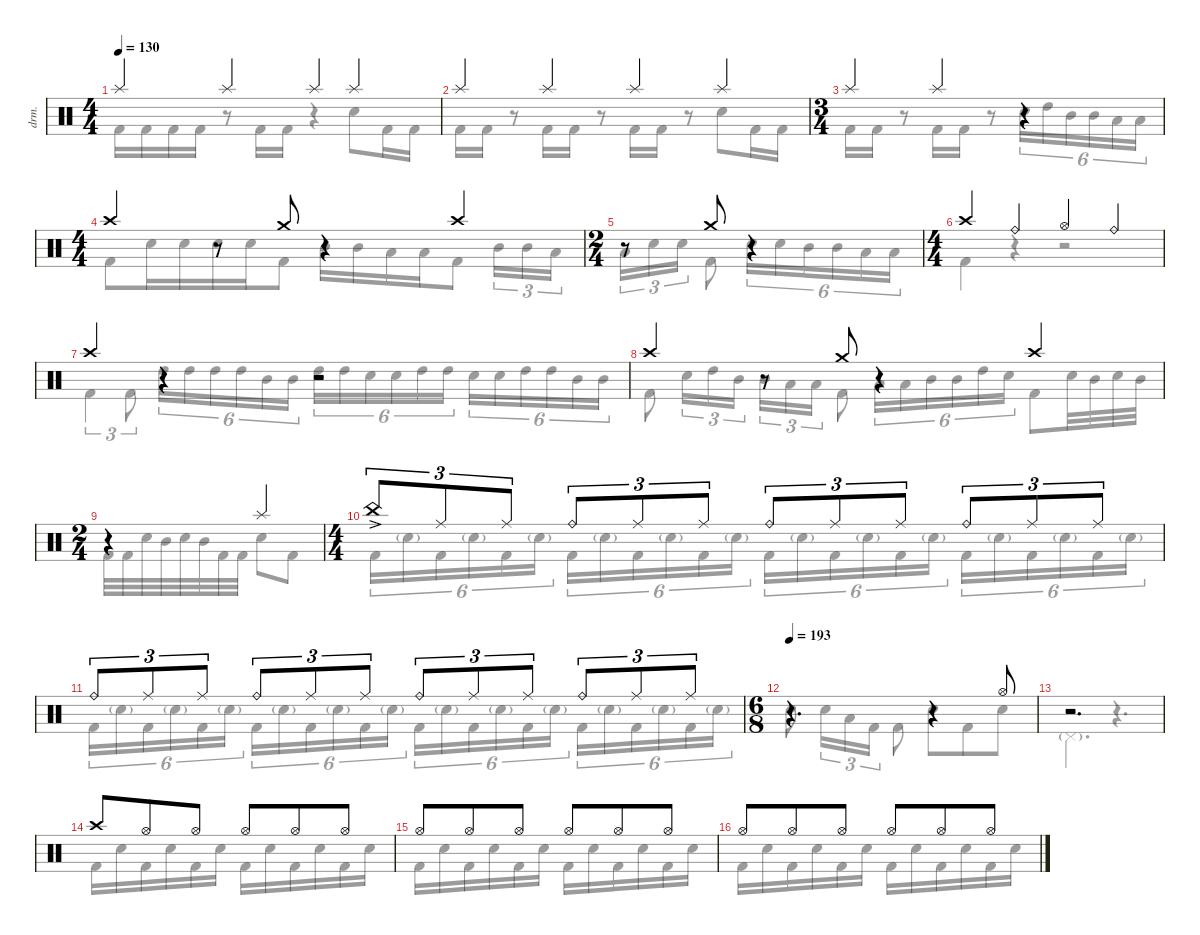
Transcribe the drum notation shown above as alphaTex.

\defaultSystemsLayout 4
\hideDynamics
\bracketExtendMode nobrackets
\otherSystemsTrackNameOrientation horizontal
\track ("B. Richardson Drums" "drm.") {instrument percussion}
\staff {score}
\articulation defaults
\voice
\ts (4 4)
\tempo 130
\clef neutral
\ks c "Splash (hit)".4{dy f beam Up} "Splash (hit)".4{beam Up} "Splash (hit)".4{beam Up} "Splash (hit)".4{beam Up}
|
"Splash (hit)".4{beam Up} "Splash (hit)".4{beam Up} "Splash (hit)".4{beam Up} "Splash (hit)".4{beam Up} |
\ts (3 4)
\beaming (8 2 2 2)
"Splash (hit)".4{beam Up} "Splash (hit)".4{beam Up} r.4{beam Up} |
\ts (4 4)
\beaming (8 4 4)
"Crash high (hit)".4{dy mf beam Up} r.8{beam Up} "Crash medium (hit)".8{beam Up} r.4{beam Up} "Crash high (hit)".4{beam Up} |
\ts (2 4)
\beaming (8 2 2)
r.8{beam Up} "Crash medium (hit)".8{beam Up} r.4{beam Up} |
\ts (4 4)
\beaming (8 4 4)
"Crash high (hit)".4{beam Up} "Ride (bell)".4{dy f beam Up} "Hi-Hat (open)".4{dy mf beam Up} "Ride (bell)".4{dy f beam Up} |
"Crash high (hit)".4{dy mf beam Up} r.4{beam Up} r.2{beam Up} |
"Crash high (hit)".4{beam Up} r.8{beam Up} "Crash medium (hit)".8{beam Up} r.4{beam Up} "Crash high (hit)".4{beam Up} |
\ts (2 4)
\beaming (8 2 2)
r.4{beam Up} "Splash (hit)".4{dy f beam Up} |
\ts (4 4)
\beaming (8 4 4)
"China (hit)"{ac}.8{tu (3 2) beam Up} "Ride (middle)".8{tu (3 2) dy mf beam Up} "Ride (middle)".8{tu (3 2) beam Up} "Ride (bell)".8{tu (3 2) dy f beam Up} "Ride (middle)".8{tu (3 2) dy mf beam Up} "Ride (middle)".8{tu (3 2) beam Up} "Ride (bell)".8{tu (3 2) dy f beam Up} "Ride (middle)".8{tu (3 2) dy mf beam Up} "Ride (middle)".8{tu (3 2) beam Up} "Ride (bell)".8{tu (3 2) dy f beam Up} "Ride (middle)".8{tu (3 2) dy mf beam Up} "Ride (middle)".8{tu (3 2) beam Up} |
"Ride (bell)".8{tu (3 2) dy f beam Up} "Ride (middle)".8{tu (3 2) dy mf beam Up} "Ride (middle)".8{tu (3 2) beam Up} "Ride (bell)".8{tu (3 2) dy f beam Up} "Ride (middle)".8{tu (3 2) dy mf beam Up} "Ride (middle)".8{tu (3 2) beam Up} "Ride (bell)".8{tu (3 2) dy f beam Up} "Ride (middle)".8{tu (3 2) dy mf beam Up} "Ride (middle)".8{tu (3 2) beam Up} "Ride (bell)".8{tu (3 2) dy f beam Up} "Ride (middle)".8{tu (3 2) dy mf beam Up} "Ride (middle)".8{tu (3 2) beam Up} |
\ts (6 8)
\beaming (8 3 3)
\tempo 193
r.4{d beam Up} r.4{beam Up} "Hi-Hat (open)".8{beam Up} |
r.2{d beam Up} |
"Crash high (hit)".8{dy f beam Up} "Hi-Hat (open)".8{dy mf beam Up} "Hi-Hat (open)".8{beam Up} "Hi-Hat (open)".8{beam Up} "Hi-Hat (open)".8{beam Up} "Hi-Hat (open)".8{beam Up} |
"Hi-Hat (open)".8{beam Up} "Hi-Hat (open)".8{beam Up} "Hi-Hat (open)".8{beam Up} "Hi-Hat (open)".8{beam Up} "Hi-Hat (open)".8{beam Up} "Hi-Hat (open)".8{beam Up} |
"Hi-Hat (open)".8{beam Up} "Hi-Hat (open)".8{beam Up} "Hi-Hat (open)".8{beam Up} "Hi-Hat (open)".8{beam Up} "Hi-Hat (open)".8{beam Up} "Hi-Hat (open)".8{beam Up}
\voice
\clef neutral
\ottava regular
\simile none
\ks c "Kick (hit) 2".16{dy fff beam Down} "Kick (hit) 2".16{beam Down} "Kick (hit) 2".16{beam Down} "Kick (hit) 2".16{beam Down}
r.8{beam Down} "Kick (hit) 2".16{beam Down} "Kick (hit) 2".16{beam Down} r.4{beam Down} "Snare (hit) 2".8{beam Down} "Kick (hit) 2".16{beam Down} "Kick (hit) 2".16{beam Down} |
"Kick (hit) 2".16{beam Down} "Kick (hit) 2".16{beam Down} r.8{beam Down} "Kick (hit) 2".16{beam Down} "Kick (hit) 2".16{beam Down} r.8{beam Down} "Kick (hit) 2".16{beam Down} "Kick (hit) 2".16{beam Down} r.8{beam Down} "Snare (hit) 2".8{beam Down} "Kick (hit) 2".16{beam Down} "Kick (hit) 2".16{beam Down} |
"Kick (hit) 2".16{beam Down} "Kick (hit) 2".16{beam Down} r.8{beam Down} "Kick (hit) 2".16{beam Down} "Kick (hit) 2".16{beam Down} r.8{beam Down} "Snare (hit) 2".16{tu (6 4) beam Down} "High Tom (hit)".16{tu (6 4) beam Down} "Mid Tom (hit)".16{tu (6 4) beam Down} "Mid Tom (hit)".16{tu (6 4) beam Down} "Low Tom (hit)".16{tu (6 4) beam Down} "Low Tom (hit)".16{tu (6 4) beam Down} |
"Kick (hit) 2".8{beam Down} "Snare (hit) 2".16{beam Down} "Snare (hit) 2".16{beam Down} "Snare (hit) 2".16{beam Down} "Snare (hit) 2".16{beam Down} "Kick (hit) 2".8{beam Down} "Mid Tom (hit)".16{beam Down} "Mid Tom (hit)".16{beam Down} "Low Tom (hit)".16{beam Down} "Low Tom (hit)".16{beam Down} "Kick (hit) 2".8{beam Down} "Mid Tom (hit)".16{tu (3 2) beam Down} "Mid Tom (hit)".16{tu (3 2) beam Down} "Low Tom (hit)".16{tu (3 2) beam Down} |
"Low Tom (hit)".16{tu (3 2) beam Down} "Snare (hit) 2".16{tu (3 2) beam Down} "Snare (hit) 2".16{tu (3 2) beam Down} "Kick (hit) 2".8{beam Down} "Snare (hit) 2".16{tu (6 4) beam Down} "Snare (hit) 2".16{tu (6 4) beam Down} "Mid Tom (hit)".16{tu (6 4) beam Down} "Mid Tom (hit)".16{tu (6 4) beam Down} "Low Tom (hit)".16{tu (6 4) beam Down} "Low Tom (hit)".16{tu (6 4) beam Down} |
"Kick (hit) 2".4{beam Down} r.4{beam Down} r.2{beam Down} |
"Kick (hit) 2".4{tu (3 2) beam Down} "Kick (hit) 2".8{tu (3 2) beam Down} "High Tom (hit)".16{tu (6 4) beam Down} "High Tom (hit)".16{tu (6 4) beam Down} "High Tom (hit)".16{tu (6 4) beam Down} "High Tom (hit)".16{tu (6 4) beam Down} "Mid Tom (hit)".16{tu (6 4) beam Down} "Mid Tom (hit)".16{tu (6 4) beam Down} "High Tom (hit)".16{tu (6 4) beam Down} "High Tom (hit)".16{tu (6 4) beam Down} "Snare (hit) 2".16{tu (6 4) beam Down} "Snare (hit) 2".16{tu (6 4) beam Down} "High Tom (hit)".16{tu (6 4) beam Down} "High Tom (hit)".16{tu (6 4) beam Down} "Snare (hit) 2".16{tu (6 4) beam Down} "Snare (hit) 2".16{tu (6 4) beam Down} "High Tom (hit)".16{tu (6 4) beam Down} "High Tom (hit)".16{tu (6 4) beam Down} "Mid Tom (hit)".16{tu (6 4) beam Down} "Mid Tom (hit)".16{tu (6 4) beam Down} |
"Kick (hit) 2".8{beam Down} "Snare (hit) 2".16{tu (3 2) beam Down} "High Tom (hit)".16{tu (3 2) beam Down} "Mid Tom (hit)".16{tu (3 2) beam Down} "Mid Tom (hit)".16{tu (3 2) beam Down} "Low Tom (hit)".16{tu (3 2) beam Down} "Low Tom (hit)".16{tu (3 2) beam Down} "Kick (hit) 2".8{beam Down} "Low Tom (hit)".16{tu (6 4) beam Down} "Low Tom (hit)".16{tu (6 4) beam Down} "Mid Tom (hit)".16{tu (6 4) beam Down} "Mid Tom (hit)".16{tu (6 4) beam Down} "High Tom (hit)".16{tu (6 4) beam Down} "Snare (hit) 2".16{tu (6 4) beam Down} "Kick (hit) 2".8{beam Down} "Snare (hit) 2".32{beam Down} "Mid Tom (hit)".32{beam Down} "Snare (hit) 2".32{beam Down} "Mid Tom (hit)".32{beam Down} |
"Kick (hit) 2".32{beam Down} "Kick (hit) 2".32{beam Down} "Snare (hit) 2".32{beam Down} "Mid Tom (hit)".32{beam Down} "Snare (hit) 2".32{beam Down} "Mid Tom (hit)".32{beam Down} "Kick (hit) 2".32{beam Down} "Kick (hit) 2".32{beam Down} "Snare (hit) 2".8{beam Down} "Kick (hit) 2".8{beam Down} |
"Kick (hit) 2".16{tu (6 4) beam Down} "Snare (hit) 2"{g}.16{tu (6 4) dy f beam Down} "Kick (hit) 2".16{tu (6 4) dy fff beam Down} "Snare (hit) 2"{g}.16{tu (6 4) dy f beam Down} "Kick (hit) 2".16{tu (6 4) dy fff beam Down} "Snare (hit) 2"{g}.16{tu (6 4) dy f beam Down} "Kick (hit) 2".16{tu (6 4) dy fff beam Down} "Snare (hit) 2"{g}.16{tu (6 4) dy f beam Down} "Kick (hit) 2".16{tu (6 4) dy fff beam Down} "Snare (hit) 2"{g}.16{tu (6 4) dy f beam Down} "Kick (hit) 2".16{tu (6 4) dy fff beam Down} "Snare (hit) 2"{g}.16{tu (6 4) dy f beam Down} "Kick (hit) 2".16{tu (6 4) dy fff beam Down} "Snare (hit) 2"{g}.16{tu (6 4) dy f beam Down} "Kick (hit) 2".16{tu (6 4) dy fff beam Down} "Snare (hit) 2"{g}.16{tu (6 4) dy f beam Down} "Kick (hit) 2".16{tu (6 4) dy fff beam Down} "Snare (hit) 2"{g}.16{tu (6 4) dy f beam Down} "Kick (hit) 2".16{tu (6 4) dy fff beam Down} "Snare (hit) 2"{g}.16{tu (6 4) dy f beam Down} "Kick (hit) 2".16{tu (6 4) dy fff beam Down} "Snare (hit) 2"{g}.16{tu (6 4) dy f beam Down} "Kick (hit) 2".16{tu (6 4) dy fff beam Down} "Snare (hit) 2"{g}.16{tu (6 4) dy f beam Down} |
"Kick (hit) 2".16{tu (6 4) dy fff beam Down} "Snare (hit) 2"{g}.16{tu (6 4) dy f beam Down} "Kick (hit) 2".16{tu (6 4) dy fff beam Down} "Snare (hit) 2"{g}.16{tu (6 4) dy f beam Down} "Kick (hit) 2".16{tu (6 4) dy fff beam Down} "Snare (hit) 2"{g}.16{tu (6 4) dy f beam Down} "Kick (hit) 2".16{tu (6 4) dy fff beam Down} "Snare (hit) 2"{g}.16{tu (6 4) dy f beam Down} "Kick (hit) 2".16{tu (6 4) dy fff beam Down} "Snare (hit) 2"{g}.16{tu (6 4) dy f beam Down} "Kick (hit) 2".16{tu (6 4) dy fff beam Down} "Snare (hit) 2"{g}.16{tu (6 4) dy f beam Down} "Kick (hit) 2".16{tu (6 4) dy fff beam Down} "Snare (hit) 2"{g}.16{tu (6 4) dy f beam Down} "Kick (hit) 2".16{tu (6 4) dy fff beam Down} "Snare (hit) 2"{g}.16{tu (6 4) dy f beam Down} "Kick (hit) 2".16{tu (6 4) dy fff beam Down} "Snare (hit) 2"{g}.16{tu (6 4) dy f beam Down} "Kick (hit) 2".16{tu (6 4) dy fff beam Down} "Snare (hit) 2"{g}.16{tu (6 4) dy f beam Down} "Kick (hit) 2".16{tu (6 4) dy fff beam Down} "Snare (hit) 2"{g}.16{tu (6 4) dy f beam Down} "Kick (hit) 2".16{tu (6 4) dy fff beam Down} "Snare (hit) 2"{g}.16{tu (6 4) dy f beam Down} |
"Snare (hit) 2".8{dy fff beam Down} "Snare (hit) 2".16{tu (3 2) beam Down} "Low Tom (hit)".16{tu (3 2) beam Down} "Kick (hit) 2".16{tu (3 2) beam Down} "Kick (hit) 2".8{beam Down} "Snare (hit) 2".8{beam Down} "Kick (hit) 2".8{beam Down} "Snare (hit) 2".8{beam Down} |
"Pedal Hi-Hat (hit)"{g}.4{d dy mf beam Down} r.4{d beam Down} |
"Kick (hit) 2".16{dy fff beam Down} "Snare (hit) 2".16{dy f beam Down} "Kick (hit) 2".16{dy fff beam Down} "Snare (hit) 2".16{dy f beam Down} "Kick (hit) 2".16{dy fff beam Down} "Snare (hit) 2".16{dy f beam Down} "Kick (hit) 2".16{dy fff beam Down} "Snare (hit) 2".16{dy f beam Down} "Kick (hit) 2".16{dy fff beam Down} "Snare (hit) 2".16{dy f beam Down} "Kick (hit) 2".16{dy fff beam Down} "Snare (hit) 2".16{dy f beam Down} |
"Kick (hit) 2".16{dy fff beam Down} "Snare (hit) 2".16{dy f beam Down} "Kick (hit) 2".16{dy fff beam Down} "Snare (hit) 2".16{dy f beam Down} "Kick (hit) 2".16{dy fff beam Down} "Snare (hit) 2".16{dy f beam Down} "Kick (hit) 2".16{dy fff beam Down} "Snare (hit) 2".16{dy f beam Down} "Kick (hit) 2".16{dy fff beam Down} "Snare (hit) 2".16{dy f beam Down} "Kick (hit) 2".16{dy fff beam Down} "Snare (hit) 2".16{dy f beam Down} |
"Kick (hit) 2".16{dy fff beam Down} "Snare (hit) 2".16{dy f beam Down} "Kick (hit) 2".16{dy fff beam Down} "Snare (hit) 2".16{dy f beam Down} "Kick (hit) 2".16{dy fff beam Down} "Snare (hit) 2".16{dy f beam Down} "Kick (hit) 2".16{dy fff beam Down} "Snare (hit) 2".16{dy f beam Down} "Kick (hit) 2".16{dy fff beam Down} "Snare (hit) 2".16{dy f beam Down} "Kick (hit) 2".16{dy fff beam Down} "Snare (hit) 2".16{dy f beam Down}
